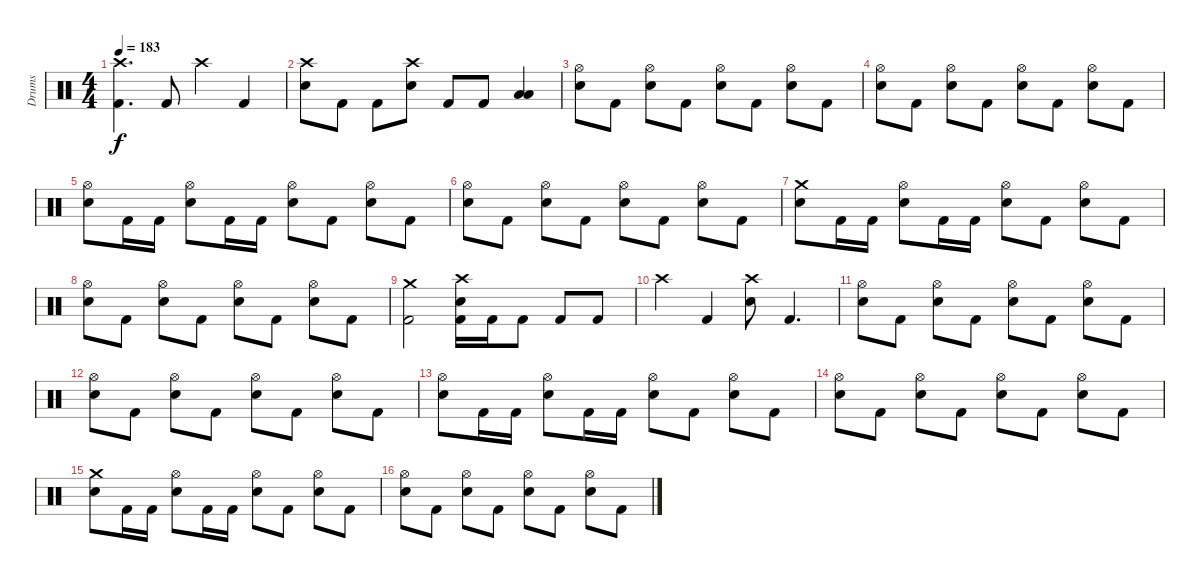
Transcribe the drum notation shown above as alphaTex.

\track ("Drums" "Drums") {instrument percussion}
\staff {score}
\articulation defaults
\ts (4 4)
\tempo 183
\clef neutral
\ks c
("Crash high (hit)" "Kick (hit) 2").4{d dy f} "Kick (hit) 2".8 "Crash high (hit)".4 "Kick (hit) 2".4 |
("Crash high (hit)" "Electric Snare (hit)").8 "Kick (hit) 2".8 "Kick (hit) 2".8 ("Crash high (hit)" "Electric Snare (hit)").8 "Kick (hit) 2".8 "Kick (hit) 2".8 ("Low Tom (hit)" "Low Floor Tom (hit)").4 |
("Hi-Hat (open)" "Electric Snare (hit)").8 "Kick (hit) 2".8 ("Hi-Hat (open)" "Electric Snare (hit)").8 "Kick (hit) 2".8 ("Hi-Hat (open)" "Electric Snare (hit)").8 "Kick (hit) 2".8 ("Hi-Hat (open)" "Electric Snare (hit)").8 "Kick (hit) 2".8 |
("Hi-Hat (open)" "Electric Snare (hit)").8 "Kick (hit) 2".8 ("Hi-Hat (open)" "Electric Snare (hit)").8 "Kick (hit) 2".8 ("Hi-Hat (open)" "Electric Snare (hit)").8 "Kick (hit) 2".8 ("Hi-Hat (open)" "Electric Snare (hit)").8 "Kick (hit) 2".8 |
("Hi-Hat (open)" "Electric Snare (hit)").8 "Kick (hit) 2".16 "Kick (hit) 2".16 ("Hi-Hat (open)" "Electric Snare (hit)").8 "Kick (hit) 2".16 "Kick (hit) 2".16 ("Hi-Hat (open)" "Electric Snare (hit)").8 "Kick (hit) 2".8 ("Hi-Hat (open)" "Electric Snare (hit)").8 "Kick (hit) 2".8 |
("Hi-Hat (open)" "Electric Snare (hit)").8 "Kick (hit) 2".8 ("Hi-Hat (open)" "Electric Snare (hit)").8 "Kick (hit) 2".8 ("Hi-Hat (open)" "Electric Snare (hit)").8 "Kick (hit) 2".8 ("Hi-Hat (open)" "Electric Snare (hit)").8 "Kick (hit) 2".8 |
("Crash medium (hit)" "Electric Snare (hit)").8 "Kick (hit) 2".16 "Kick (hit) 2".16 ("Hi-Hat (open)" "Electric Snare (hit)").8 "Kick (hit) 2".16 "Kick (hit) 2".16 ("Hi-Hat (open)" "Electric Snare (hit)").8 "Kick (hit) 2".8 ("Hi-Hat (open)" "Electric Snare (hit)").8 "Kick (hit) 2".8 |
("Hi-Hat (open)" "Electric Snare (hit)").8 "Kick (hit) 2".8 ("Hi-Hat (open)" "Electric Snare (hit)").8 "Kick (hit) 2".8 ("Hi-Hat (open)" "Electric Snare (hit)").8 "Kick (hit) 2".8 ("Hi-Hat (open)" "Electric Snare (hit)").8 "Kick (hit) 2".8 |
("Crash medium (hit)" "Kick (hit) 2").2 ("Crash high (hit)" "Electric Snare (hit)" "Kick (hit) 2").16 "Kick (hit) 2".16 "Kick (hit) 2".8 "Kick (hit) 2".8 "Kick (hit) 2".8 |
"Crash high (hit)".4 "Kick (hit) 2".4 ("Crash high (hit)" "Electric Snare (hit)").8 "Kick (hit) 2".4{d} |
("Hi-Hat (open)" "Electric Snare (hit)").8 "Kick (hit) 2".8 ("Hi-Hat (open)" "Electric Snare (hit)").8 "Kick (hit) 2".8 ("Hi-Hat (open)" "Electric Snare (hit)").8 "Kick (hit) 2".8 ("Hi-Hat (open)" "Electric Snare (hit)").8 "Kick (hit) 2".8 |
("Hi-Hat (open)" "Electric Snare (hit)").8 "Kick (hit) 2".8 ("Hi-Hat (open)" "Electric Snare (hit)").8 "Kick (hit) 2".8 ("Hi-Hat (open)" "Electric Snare (hit)").8 "Kick (hit) 2".8 ("Hi-Hat (open)" "Electric Snare (hit)").8 "Kick (hit) 2".8 |
("Hi-Hat (open)" "Electric Snare (hit)").8 "Kick (hit) 2".16 "Kick (hit) 2".16 ("Hi-Hat (open)" "Electric Snare (hit)").8 "Kick (hit) 2".16 "Kick (hit) 2".16 ("Hi-Hat (open)" "Electric Snare (hit)").8 "Kick (hit) 2".8 ("Hi-Hat (open)" "Electric Snare (hit)").8 "Kick (hit) 2".8 |
("Hi-Hat (open)" "Electric Snare (hit)").8 "Kick (hit) 2".8 ("Hi-Hat (open)" "Electric Snare (hit)").8 "Kick (hit) 2".8 ("Hi-Hat (open)" "Electric Snare (hit)").8 "Kick (hit) 2".8 ("Hi-Hat (open)" "Electric Snare (hit)").8 "Kick (hit) 2".8 |
("Crash medium (hit)" "Electric Snare (hit)").8 "Kick (hit) 2".16 "Kick (hit) 2".16 ("Hi-Hat (open)" "Electric Snare (hit)").8 "Kick (hit) 2".16 "Kick (hit) 2".16 ("Hi-Hat (open)" "Electric Snare (hit)").8 "Kick (hit) 2".8 ("Hi-Hat (open)" "Electric Snare (hit)").8 "Kick (hit) 2".8 |
("Hi-Hat (open)" "Electric Snare (hit)").8 "Kick (hit) 2".8 ("Hi-Hat (open)" "Electric Snare (hit)").8 "Kick (hit) 2".8 ("Hi-Hat (open)" "Electric Snare (hit)").8 "Kick (hit) 2".8 ("Hi-Hat (open)" "Electric Snare (hit)").8 "Kick (hit) 2".8
